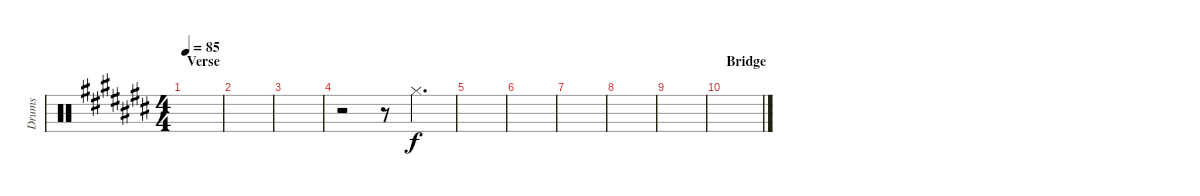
\bracketExtendMode groupsimilarinstruments
\otherSystemsTrackNameOrientation horizontal
\track ("Drumkit" "Drums") {instrument percussion}
\staff {score}
\articulation defaults
\ts (4 4)
\section ("" "Verse")
\scale
1.11262
\tempo 85
\accidentals auto
\clef neutral
\ottava regular
\simile none
\scale
0.472222
\ks c#
|
\scale
0.943691
\scale
0.263889 |
\scale
0.943691
\scale
0.263889 |
\scale
1.06367
\scale
0.333333 r.2{beam Down} r.8{beam Down} "Hi-Hat (closed)"{acc forcenatural}.4{d beam Down} |
\scale
0.968167
\scale
0.333333 |
\scale
0.968167
\scale
0.333333 |
\scale
1.05899
\scale
0.333333 |
\scale
0.963488
\scale
0.333333 |
\scale
0.977525
\scale
0.333333 |
\section ("" "Bridge")
\scale
1.07202
\scale
0.333333 |
\scale
0.951457
\scale
0.333333 |
\scale
0.976522
\scale
0.333333 |
\scale
1.07202
\scale
0.333333 |
\scale
0.976522
\scale
0.333333 |
\scale
0.951457
\scale
0.333333 |
\scale
1.05899
\scale
0.333333
